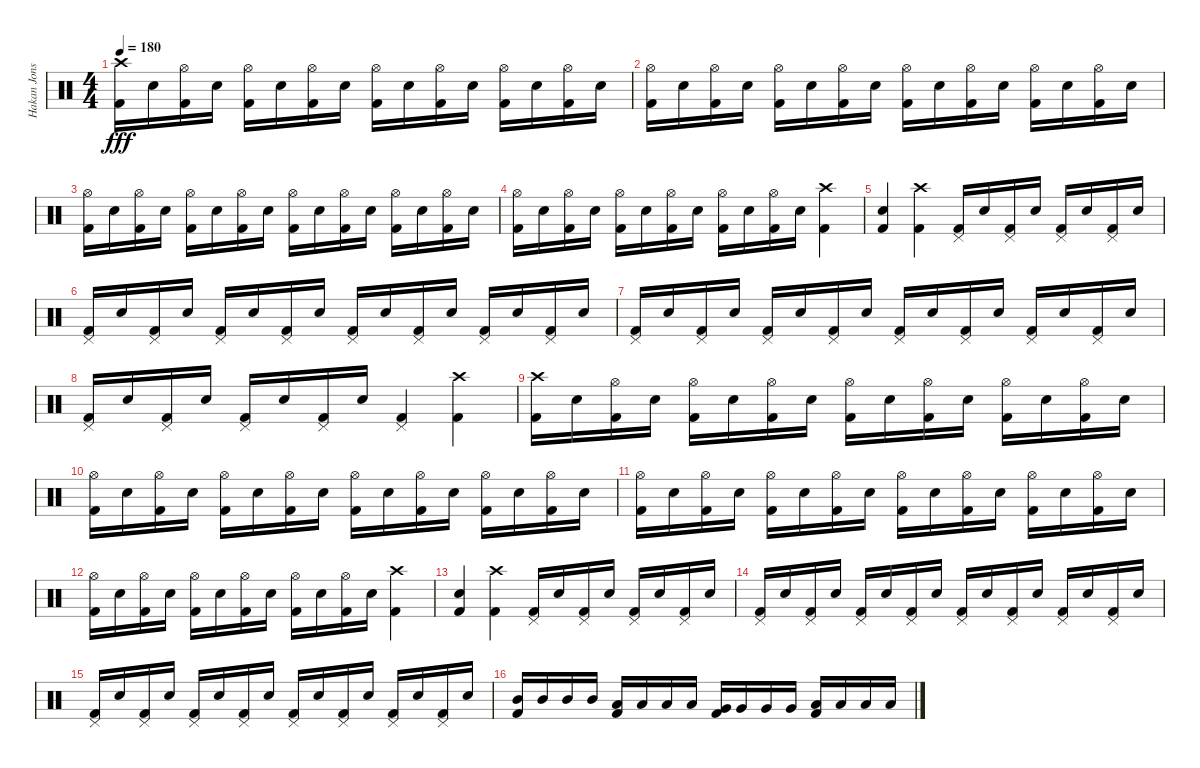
\track ("Hakan Jonsson" "Hakan Jons") {instrument percussion}
\staff {score}
\articulation defaults
\ts (4 4)
\tempo 180
\clef neutral
\ks c
("Crash high (hit)" "Kick (hit) 2").16{dy fff} "Electric Snare (hit)".16 ("Hi-Hat (open)" "Kick (hit) 2").16 "Electric Snare (hit)".16 ("Hi-Hat (open)" "Kick (hit) 2").16 "Electric Snare (hit)".16 ("Hi-Hat (open)" "Kick (hit) 2").16 "Electric Snare (hit)".16 ("Hi-Hat (open)" "Kick (hit) 2").16 "Electric Snare (hit)".16 ("Hi-Hat (open)" "Kick (hit) 2").16 "Electric Snare (hit)".16 ("Hi-Hat (open)" "Kick (hit) 2").16 "Electric Snare (hit)".16 ("Hi-Hat (open)" "Kick (hit) 2").16 "Electric Snare (hit)".16 |
("Hi-Hat (open)" "Kick (hit) 2").16 "Electric Snare (hit)".16 ("Hi-Hat (open)" "Kick (hit) 2").16 "Electric Snare (hit)".16 ("Hi-Hat (open)" "Kick (hit) 2").16 "Electric Snare (hit)".16 ("Hi-Hat (open)" "Kick (hit) 2").16 "Electric Snare (hit)".16 ("Hi-Hat (open)" "Kick (hit) 2").16 "Electric Snare (hit)".16 ("Hi-Hat (open)" "Kick (hit) 2").16 "Electric Snare (hit)".16 ("Hi-Hat (open)" "Kick (hit) 2").16 "Electric Snare (hit)".16 ("Hi-Hat (open)" "Kick (hit) 2").16 "Electric Snare (hit)".16 |
("Hi-Hat (open)" "Kick (hit) 2").16 "Electric Snare (hit)".16 ("Hi-Hat (open)" "Kick (hit) 2").16 "Electric Snare (hit)".16 ("Hi-Hat (open)" "Kick (hit) 2").16 "Electric Snare (hit)".16 ("Hi-Hat (open)" "Kick (hit) 2").16 "Electric Snare (hit)".16 ("Hi-Hat (open)" "Kick (hit) 2").16 "Electric Snare (hit)".16 ("Hi-Hat (open)" "Kick (hit) 2").16 "Electric Snare (hit)".16 ("Hi-Hat (open)" "Kick (hit) 2").16 "Electric Snare (hit)".16 ("Hi-Hat (open)" "Kick (hit) 2").16 "Electric Snare (hit)".16 |
("Hi-Hat (open)" "Kick (hit) 2").16 "Electric Snare (hit)".16 ("Hi-Hat (open)" "Kick (hit) 2").16 "Electric Snare (hit)".16 ("Hi-Hat (open)" "Kick (hit) 2").16 "Electric Snare (hit)".16 ("Hi-Hat (open)" "Kick (hit) 2").16 "Electric Snare (hit)".16 ("Hi-Hat (open)" "Kick (hit) 2").16 "Electric Snare (hit)".16 ("Hi-Hat (open)" "Kick (hit) 2").16 "Electric Snare (hit)".16 ("Crash high (hit)" "Kick (hit) 2").4 |
("Electric Snare (hit)" "Kick (hit) 2").4 ("Crash high (hit)" "Kick (hit) 2").4 ("Pedal Hi-Hat (hit)" "Kick (hit) 2").16 "Electric Snare (hit)".16 ("Pedal Hi-Hat (hit)" "Kick (hit) 2").16 "Electric Snare (hit)".16 ("Pedal Hi-Hat (hit)" "Kick (hit) 2").16 "Electric Snare (hit)".16 ("Pedal Hi-Hat (hit)" "Kick (hit) 2").16 "Electric Snare (hit)".16 |
("Pedal Hi-Hat (hit)" "Kick (hit) 2").16 "Electric Snare (hit)".16 ("Pedal Hi-Hat (hit)" "Kick (hit) 2").16 "Electric Snare (hit)".16 ("Pedal Hi-Hat (hit)" "Kick (hit) 2").16 "Electric Snare (hit)".16 ("Pedal Hi-Hat (hit)" "Kick (hit) 2").16 "Electric Snare (hit)".16 ("Pedal Hi-Hat (hit)" "Kick (hit) 2").16 "Electric Snare (hit)".16 ("Pedal Hi-Hat (hit)" "Kick (hit) 2").16 "Electric Snare (hit)".16 ("Pedal Hi-Hat (hit)" "Kick (hit) 2").16 "Electric Snare (hit)".16 ("Pedal Hi-Hat (hit)" "Kick (hit) 2").16 "Electric Snare (hit)".16 |
("Pedal Hi-Hat (hit)" "Kick (hit) 2").16 "Electric Snare (hit)".16 ("Pedal Hi-Hat (hit)" "Kick (hit) 2").16 "Electric Snare (hit)".16 ("Pedal Hi-Hat (hit)" "Kick (hit) 2").16 "Electric Snare (hit)".16 ("Pedal Hi-Hat (hit)" "Kick (hit) 2").16 "Electric Snare (hit)".16 ("Pedal Hi-Hat (hit)" "Kick (hit) 2").16 "Electric Snare (hit)".16 ("Pedal Hi-Hat (hit)" "Kick (hit) 2").16 "Electric Snare (hit)".16 ("Pedal Hi-Hat (hit)" "Kick (hit) 2").16 "Electric Snare (hit)".16 ("Pedal Hi-Hat (hit)" "Kick (hit) 2").16 "Electric Snare (hit)".16 |
("Pedal Hi-Hat (hit)" "Kick (hit) 2").16 "Electric Snare (hit)".16 ("Pedal Hi-Hat (hit)" "Kick (hit) 2").16 "Electric Snare (hit)".16 ("Pedal Hi-Hat (hit)" "Kick (hit) 2").16 "Electric Snare (hit)".16 ("Pedal Hi-Hat (hit)" "Kick (hit) 2").16 "Electric Snare (hit)".16 ("Pedal Hi-Hat (hit)" "Kick (hit) 2").4 ("Crash high (hit)" "Kick (hit) 2").4 |
("Crash high (hit)" "Kick (hit) 2").16 "Electric Snare (hit)".16 ("Hi-Hat (open)" "Kick (hit) 2").16 "Electric Snare (hit)".16 ("Hi-Hat (open)" "Kick (hit) 2").16 "Electric Snare (hit)".16 ("Hi-Hat (open)" "Kick (hit) 2").16 "Electric Snare (hit)".16 ("Hi-Hat (open)" "Kick (hit) 2").16 "Electric Snare (hit)".16 ("Hi-Hat (open)" "Kick (hit) 2").16 "Electric Snare (hit)".16 ("Hi-Hat (open)" "Kick (hit) 2").16 "Electric Snare (hit)".16 ("Hi-Hat (open)" "Kick (hit) 2").16 "Electric Snare (hit)".16 |
("Hi-Hat (open)" "Kick (hit) 2").16 "Electric Snare (hit)".16 ("Hi-Hat (open)" "Kick (hit) 2").16 "Electric Snare (hit)".16 ("Hi-Hat (open)" "Kick (hit) 2").16 "Electric Snare (hit)".16 ("Hi-Hat (open)" "Kick (hit) 2").16 "Electric Snare (hit)".16 ("Hi-Hat (open)" "Kick (hit) 2").16 "Electric Snare (hit)".16 ("Hi-Hat (open)" "Kick (hit) 2").16 "Electric Snare (hit)".16 ("Hi-Hat (open)" "Kick (hit) 2").16 "Electric Snare (hit)".16 ("Hi-Hat (open)" "Kick (hit) 2").16 "Electric Snare (hit)".16 |
("Hi-Hat (open)" "Kick (hit) 2").16 "Electric Snare (hit)".16 ("Hi-Hat (open)" "Kick (hit) 2").16 "Electric Snare (hit)".16 ("Hi-Hat (open)" "Kick (hit) 2").16 "Electric Snare (hit)".16 ("Hi-Hat (open)" "Kick (hit) 2").16 "Electric Snare (hit)".16 ("Hi-Hat (open)" "Kick (hit) 2").16 "Electric Snare (hit)".16 ("Hi-Hat (open)" "Kick (hit) 2").16 "Electric Snare (hit)".16 ("Hi-Hat (open)" "Kick (hit) 2").16 "Electric Snare (hit)".16 ("Hi-Hat (open)" "Kick (hit) 2").16 "Electric Snare (hit)".16 |
("Hi-Hat (open)" "Kick (hit) 2").16 "Electric Snare (hit)".16 ("Hi-Hat (open)" "Kick (hit) 2").16 "Electric Snare (hit)".16 ("Hi-Hat (open)" "Kick (hit) 2").16 "Electric Snare (hit)".16 ("Hi-Hat (open)" "Kick (hit) 2").16 "Electric Snare (hit)".16 ("Hi-Hat (open)" "Kick (hit) 2").16 "Electric Snare (hit)".16 ("Hi-Hat (open)" "Kick (hit) 2").16 "Electric Snare (hit)".16 ("Crash high (hit)" "Kick (hit) 2").4 |
("Electric Snare (hit)" "Kick (hit) 2").4 ("Crash high (hit)" "Kick (hit) 2").4 ("Pedal Hi-Hat (hit)" "Kick (hit) 2").16 "Electric Snare (hit)".16 ("Pedal Hi-Hat (hit)" "Kick (hit) 2").16 "Electric Snare (hit)".16 ("Pedal Hi-Hat (hit)" "Kick (hit) 2").16 "Electric Snare (hit)".16 ("Pedal Hi-Hat (hit)" "Kick (hit) 2").16 "Electric Snare (hit)".16 |
("Pedal Hi-Hat (hit)" "Kick (hit) 2").16 "Electric Snare (hit)".16 ("Pedal Hi-Hat (hit)" "Kick (hit) 2").16 "Electric Snare (hit)".16 ("Pedal Hi-Hat (hit)" "Kick (hit) 2").16 "Electric Snare (hit)".16 ("Pedal Hi-Hat (hit)" "Kick (hit) 2").16 "Electric Snare (hit)".16 ("Pedal Hi-Hat (hit)" "Kick (hit) 2").16 "Electric Snare (hit)".16 ("Pedal Hi-Hat (hit)" "Kick (hit) 2").16 "Electric Snare (hit)".16 ("Pedal Hi-Hat (hit)" "Kick (hit) 2").16 "Electric Snare (hit)".16 ("Pedal Hi-Hat (hit)" "Kick (hit) 2").16 "Electric Snare (hit)".16 |
("Pedal Hi-Hat (hit)" "Kick (hit) 2").16 "Electric Snare (hit)".16 ("Pedal Hi-Hat (hit)" "Kick (hit) 2").16 "Electric Snare (hit)".16 ("Pedal Hi-Hat (hit)" "Kick (hit) 2").16 "Electric Snare (hit)".16 ("Pedal Hi-Hat (hit)" "Kick (hit) 2").16 "Electric Snare (hit)".16 ("Pedal Hi-Hat (hit)" "Kick (hit) 2").16 "Electric Snare (hit)".16 ("Pedal Hi-Hat (hit)" "Kick (hit) 2").16 "Electric Snare (hit)".16 ("Pedal Hi-Hat (hit)" "Kick (hit) 2").16 "Electric Snare (hit)".16 ("Pedal Hi-Hat (hit)" "Kick (hit) 2").16 "Electric Snare (hit)".16 |
("Mid Tom (hit)" "Kick (hit) 2").16 "Mid Tom (hit)".16 "Mid Tom (hit)".16 "Mid Tom (hit)".16 ("Low Tom (hit)" "Kick (hit) 2").16 "Low Tom (hit)".16 "Low Tom (hit)".16 "Low Tom (hit)".16 ("Very Low Tom (hit)" "Kick (hit) 2").16 "Very Low Tom (hit)".16 "Very Low Tom (hit)".16 "Very Low Tom (hit)".16 ("Low Floor Tom (hit)" "Kick (hit) 2").16 "Low Floor Tom (hit)".16 "Low Floor Tom (hit)".16 "Low Floor Tom (hit)".16
